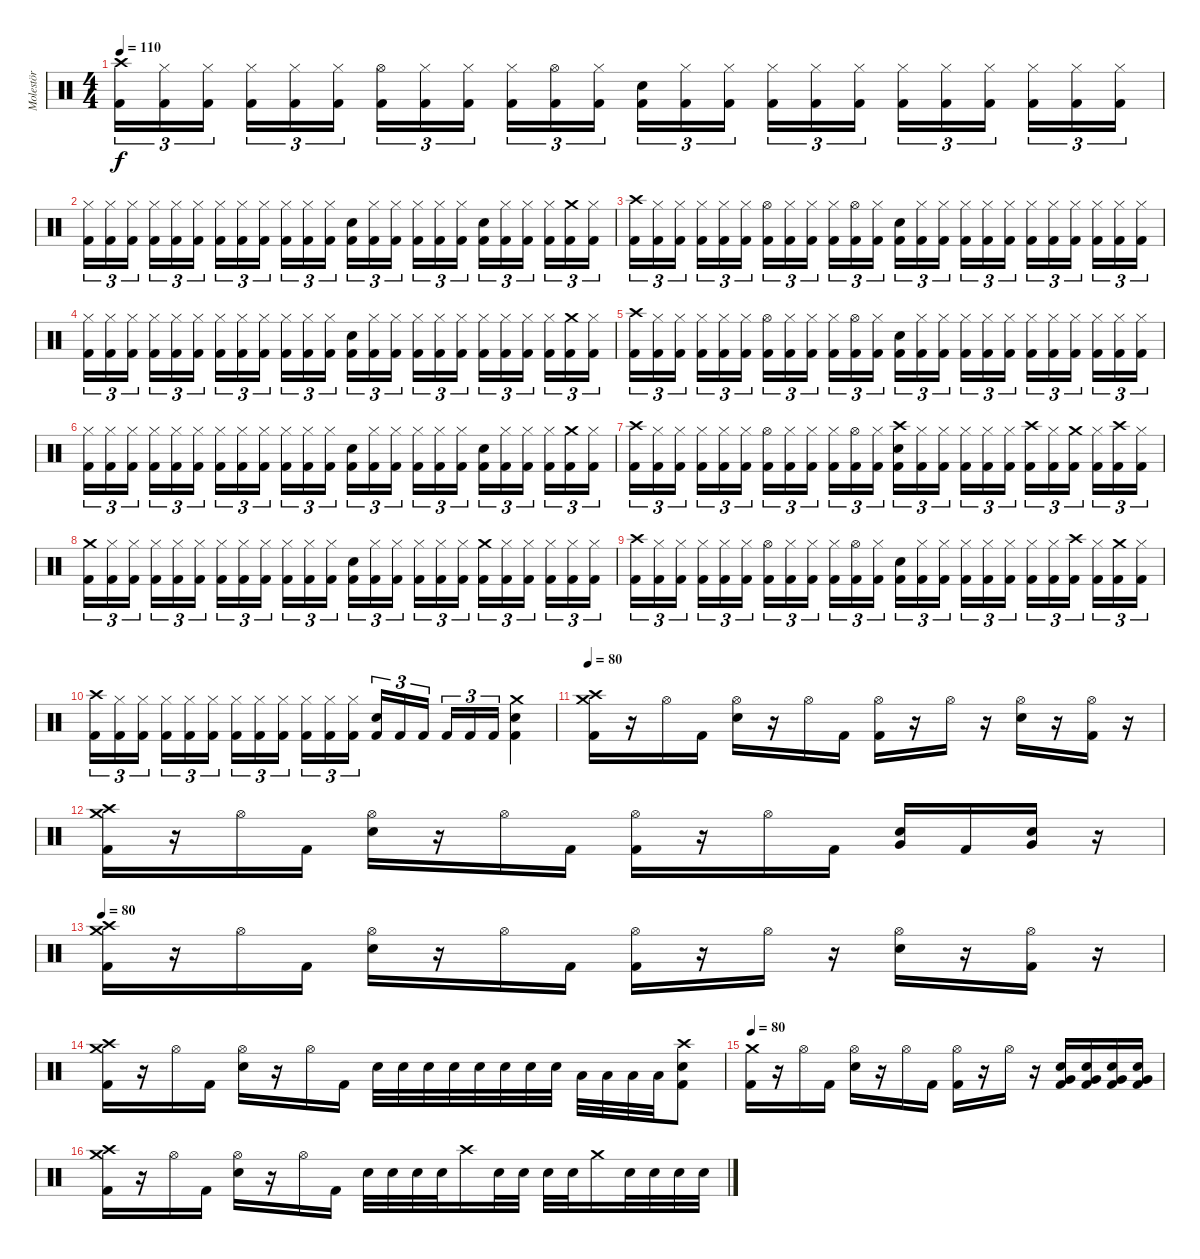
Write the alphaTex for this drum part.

\track ("Molestör" "Molestör") {instrument percussion}
\staff {score}
\articulation defaults
\ts (4 4)
\tempo 110
\clef neutral
\ks c
("Crash high (hit)" "Kick (hit) 2").16{tu (3 2) dy f} ("Hi-Hat (closed)" "Kick (hit) 2").16{tu (3 2)} ("Hi-Hat (closed)" "Kick (hit) 2").16{tu (3 2) beam splitsecondary} ("Hi-Hat (closed)" "Kick (hit) 2").16{tu (3 2)} ("Hi-Hat (closed)" "Kick (hit) 2").16{tu (3 2)} ("Hi-Hat (closed)" "Kick (hit) 2").16{tu (3 2)} ("Hi-Hat (open)" "Kick (hit) 2").16{tu (3 2)} ("Hi-Hat (closed)" "Kick (hit) 2").16{tu (3 2)} ("Hi-Hat (closed)" "Kick (hit) 2").16{tu (3 2) beam splitsecondary} ("Hi-Hat (closed)" "Kick (hit) 2").16{tu (3 2)} ("Hi-Hat (open)" "Kick (hit) 2").16{tu (3 2)} ("Hi-Hat (closed)" "Kick (hit) 2").16{tu (3 2)} ("Electric Snare (hit)" "Kick (hit) 2").16{tu (3 2)} ("Hi-Hat (closed)" "Kick (hit) 2").16{tu (3 2)} ("Hi-Hat (closed)" "Kick (hit) 2").16{tu (3 2) beam splitsecondary} ("Hi-Hat (closed)" "Kick (hit) 2").16{tu (3 2)} ("Hi-Hat (closed)" "Kick (hit) 2").16{tu (3 2)} ("Hi-Hat (closed)" "Kick (hit) 2").16{tu (3 2)} ("Hi-Hat (closed)" "Kick (hit) 2").16{tu (3 2)} ("Hi-Hat (closed)" "Kick (hit) 2").16{tu (3 2)} ("Hi-Hat (closed)" "Kick (hit) 2").16{tu (3 2) beam splitsecondary} ("Hi-Hat (closed)" "Kick (hit) 2").16{tu (3 2)} ("Hi-Hat (closed)" "Kick (hit) 2").16{tu (3 2)} ("Hi-Hat (closed)" "Kick (hit) 2").16{tu (3 2)} |
("Hi-Hat (closed)" "Kick (hit) 2").16{tu (3 2)} ("Hi-Hat (closed)" "Kick (hit) 2").16{tu (3 2)} ("Hi-Hat (closed)" "Kick (hit) 2").16{tu (3 2) beam splitsecondary} ("Hi-Hat (closed)" "Kick (hit) 2").16{tu (3 2)} ("Hi-Hat (closed)" "Kick (hit) 2").16{tu (3 2)} ("Hi-Hat (closed)" "Kick (hit) 2").16{tu (3 2)} ("Hi-Hat (closed)" "Kick (hit) 2").16{tu (3 2)} ("Hi-Hat (closed)" "Kick (hit) 2").16{tu (3 2)} ("Hi-Hat (closed)" "Kick (hit) 2").16{tu (3 2) beam splitsecondary} ("Hi-Hat (closed)" "Kick (hit) 2").16{tu (3 2)} ("Hi-Hat (closed)" "Kick (hit) 2").16{tu (3 2)} ("Hi-Hat (closed)" "Kick (hit) 2").16{tu (3 2)} ("Electric Snare (hit)" "Kick (hit) 2").16{tu (3 2)} ("Hi-Hat (closed)" "Kick (hit) 2").16{tu (3 2)} ("Hi-Hat (closed)" "Kick (hit) 2").16{tu (3 2) beam splitsecondary} ("Hi-Hat (closed)" "Kick (hit) 2").16{tu (3 2)} ("Hi-Hat (closed)" "Kick (hit) 2").16{tu (3 2)} ("Hi-Hat (closed)" "Kick (hit) 2").16{tu (3 2)} ("Electric Snare (hit)" "Kick (hit) 2").16{tu (3 2)} ("Hi-Hat (closed)" "Kick (hit) 2").16{tu (3 2)} ("Hi-Hat (closed)" "Kick (hit) 2").16{tu (3 2) beam splitsecondary} ("Hi-Hat (closed)" "Kick (hit) 2").16{tu (3 2)} ("Crash medium (hit)" "Kick (hit) 2").16{tu (3 2)} ("Hi-Hat (closed)" "Kick (hit) 2").16{tu (3 2)} |
("Crash high (hit)" "Kick (hit) 2").16{tu (3 2)} ("Hi-Hat (closed)" "Kick (hit) 2").16{tu (3 2)} ("Hi-Hat (closed)" "Kick (hit) 2").16{tu (3 2) beam splitsecondary} ("Hi-Hat (closed)" "Kick (hit) 2").16{tu (3 2)} ("Hi-Hat (closed)" "Kick (hit) 2").16{tu (3 2)} ("Hi-Hat (closed)" "Kick (hit) 2").16{tu (3 2)} ("Hi-Hat (open)" "Kick (hit) 2").16{tu (3 2)} ("Hi-Hat (closed)" "Kick (hit) 2").16{tu (3 2)} ("Hi-Hat (closed)" "Kick (hit) 2").16{tu (3 2) beam splitsecondary} ("Hi-Hat (closed)" "Kick (hit) 2").16{tu (3 2)} ("Hi-Hat (open)" "Kick (hit) 2").16{tu (3 2)} ("Hi-Hat (closed)" "Kick (hit) 2").16{tu (3 2)} ("Electric Snare (hit)" "Kick (hit) 2").16{tu (3 2)} ("Hi-Hat (closed)" "Kick (hit) 2").16{tu (3 2)} ("Hi-Hat (closed)" "Kick (hit) 2").16{tu (3 2) beam splitsecondary} ("Hi-Hat (closed)" "Kick (hit) 2").16{tu (3 2)} ("Hi-Hat (closed)" "Kick (hit) 2").16{tu (3 2)} ("Hi-Hat (closed)" "Kick (hit) 2").16{tu (3 2)} ("Hi-Hat (closed)" "Kick (hit) 2").16{tu (3 2)} ("Hi-Hat (closed)" "Kick (hit) 2").16{tu (3 2)} ("Hi-Hat (closed)" "Kick (hit) 2").16{tu (3 2) beam splitsecondary} ("Hi-Hat (closed)" "Kick (hit) 2").16{tu (3 2)} ("Hi-Hat (closed)" "Kick (hit) 2").16{tu (3 2)} ("Hi-Hat (closed)" "Kick (hit) 2").16{tu (3 2)} |
("Hi-Hat (closed)" "Kick (hit) 2").16{tu (3 2)} ("Hi-Hat (closed)" "Kick (hit) 2").16{tu (3 2)} ("Hi-Hat (closed)" "Kick (hit) 2").16{tu (3 2) beam splitsecondary} ("Hi-Hat (closed)" "Kick (hit) 2").16{tu (3 2)} ("Hi-Hat (closed)" "Kick (hit) 2").16{tu (3 2)} ("Hi-Hat (closed)" "Kick (hit) 2").16{tu (3 2)} ("Hi-Hat (closed)" "Kick (hit) 2").16{tu (3 2)} ("Hi-Hat (closed)" "Kick (hit) 2").16{tu (3 2)} ("Hi-Hat (closed)" "Kick (hit) 2").16{tu (3 2) beam splitsecondary} ("Hi-Hat (closed)" "Kick (hit) 2").16{tu (3 2)} ("Hi-Hat (closed)" "Kick (hit) 2").16{tu (3 2)} ("Hi-Hat (closed)" "Kick (hit) 2").16{tu (3 2)} ("Electric Snare (hit)" "Kick (hit) 2").16{tu (3 2)} ("Hi-Hat (closed)" "Kick (hit) 2").16{tu (3 2)} ("Hi-Hat (closed)" "Kick (hit) 2").16{tu (3 2) beam splitsecondary} ("Hi-Hat (closed)" "Kick (hit) 2").16{tu (3 2)} ("Hi-Hat (closed)" "Kick (hit) 2").16{tu (3 2)} ("Hi-Hat (closed)" "Kick (hit) 2").16{tu (3 2)} ("Hi-Hat (closed)" "Kick (hit) 2").16{tu (3 2)} ("Hi-Hat (closed)" "Kick (hit) 2").16{tu (3 2)} ("Hi-Hat (closed)" "Kick (hit) 2").16{tu (3 2) beam splitsecondary} ("Hi-Hat (closed)" "Kick (hit) 2").16{tu (3 2)} ("Crash medium (hit)" "Kick (hit) 2").16{tu (3 2)} ("Hi-Hat (closed)" "Kick (hit) 2").16{tu (3 2)} |
("Crash high (hit)" "Kick (hit) 2").16{tu (3 2)} ("Hi-Hat (closed)" "Kick (hit) 2").16{tu (3 2)} ("Hi-Hat (closed)" "Kick (hit) 2").16{tu (3 2) beam splitsecondary} ("Hi-Hat (closed)" "Kick (hit) 2").16{tu (3 2)} ("Hi-Hat (closed)" "Kick (hit) 2").16{tu (3 2)} ("Hi-Hat (closed)" "Kick (hit) 2").16{tu (3 2)} ("Hi-Hat (open)" "Kick (hit) 2").16{tu (3 2)} ("Hi-Hat (closed)" "Kick (hit) 2").16{tu (3 2)} ("Hi-Hat (closed)" "Kick (hit) 2").16{tu (3 2) beam splitsecondary} ("Hi-Hat (closed)" "Kick (hit) 2").16{tu (3 2)} ("Hi-Hat (open)" "Kick (hit) 2").16{tu (3 2)} ("Hi-Hat (closed)" "Kick (hit) 2").16{tu (3 2)} ("Electric Snare (hit)" "Kick (hit) 2").16{tu (3 2)} ("Hi-Hat (closed)" "Kick (hit) 2").16{tu (3 2)} ("Hi-Hat (closed)" "Kick (hit) 2").16{tu (3 2) beam splitsecondary} ("Hi-Hat (closed)" "Kick (hit) 2").16{tu (3 2)} ("Hi-Hat (closed)" "Kick (hit) 2").16{tu (3 2)} ("Hi-Hat (closed)" "Kick (hit) 2").16{tu (3 2)} ("Hi-Hat (closed)" "Kick (hit) 2").16{tu (3 2)} ("Hi-Hat (closed)" "Kick (hit) 2").16{tu (3 2)} ("Hi-Hat (closed)" "Kick (hit) 2").16{tu (3 2) beam splitsecondary} ("Hi-Hat (closed)" "Kick (hit) 2").16{tu (3 2)} ("Hi-Hat (closed)" "Kick (hit) 2").16{tu (3 2)} ("Hi-Hat (closed)" "Kick (hit) 2").16{tu (3 2)} |
("Hi-Hat (closed)" "Kick (hit) 2").16{tu (3 2)} ("Hi-Hat (closed)" "Kick (hit) 2").16{tu (3 2)} ("Hi-Hat (closed)" "Kick (hit) 2").16{tu (3 2) beam splitsecondary} ("Hi-Hat (closed)" "Kick (hit) 2").16{tu (3 2)} ("Hi-Hat (closed)" "Kick (hit) 2").16{tu (3 2)} ("Hi-Hat (closed)" "Kick (hit) 2").16{tu (3 2)} ("Hi-Hat (closed)" "Kick (hit) 2").16{tu (3 2)} ("Hi-Hat (closed)" "Kick (hit) 2").16{tu (3 2)} ("Hi-Hat (closed)" "Kick (hit) 2").16{tu (3 2) beam splitsecondary} ("Hi-Hat (closed)" "Kick (hit) 2").16{tu (3 2)} ("Hi-Hat (closed)" "Kick (hit) 2").16{tu (3 2)} ("Hi-Hat (closed)" "Kick (hit) 2").16{tu (3 2)} ("Electric Snare (hit)" "Kick (hit) 2").16{tu (3 2)} ("Hi-Hat (closed)" "Kick (hit) 2").16{tu (3 2)} ("Hi-Hat (closed)" "Kick (hit) 2").16{tu (3 2) beam splitsecondary} ("Hi-Hat (closed)" "Kick (hit) 2").16{tu (3 2)} ("Hi-Hat (closed)" "Kick (hit) 2").16{tu (3 2)} ("Hi-Hat (closed)" "Kick (hit) 2").16{tu (3 2)} ("Electric Snare (hit)" "Kick (hit) 2").16{tu (3 2)} ("Hi-Hat (closed)" "Kick (hit) 2").16{tu (3 2)} ("Hi-Hat (closed)" "Kick (hit) 2").16{tu (3 2) beam splitsecondary} ("Hi-Hat (closed)" "Kick (hit) 2").16{tu (3 2)} ("Crash medium (hit)" "Kick (hit) 2").16{tu (3 2)} ("Hi-Hat (closed)" "Kick (hit) 2").16{tu (3 2)} |
("Crash high (hit)" "Kick (hit) 2").16{tu (3 2)} ("Hi-Hat (closed)" "Kick (hit) 2").16{tu (3 2)} ("Hi-Hat (closed)" "Kick (hit) 2").16{tu (3 2) beam splitsecondary} ("Hi-Hat (closed)" "Kick (hit) 2").16{tu (3 2)} ("Hi-Hat (closed)" "Kick (hit) 2").16{tu (3 2)} ("Hi-Hat (closed)" "Kick (hit) 2").16{tu (3 2)} ("Hi-Hat (open)" "Kick (hit) 2").16{tu (3 2)} ("Hi-Hat (closed)" "Kick (hit) 2").16{tu (3 2)} ("Hi-Hat (closed)" "Kick (hit) 2").16{tu (3 2) beam splitsecondary} ("Hi-Hat (closed)" "Kick (hit) 2").16{tu (3 2)} ("Hi-Hat (open)" "Kick (hit) 2").16{tu (3 2)} ("Hi-Hat (closed)" "Kick (hit) 2").16{tu (3 2)} ("Crash high (hit)" "Electric Snare (hit)" "Kick (hit) 2").16{tu (3 2)} ("Hi-Hat (closed)" "Kick (hit) 2").16{tu (3 2)} ("Hi-Hat (closed)" "Kick (hit) 2").16{tu (3 2) beam splitsecondary} ("Hi-Hat (closed)" "Kick (hit) 2").16{tu (3 2)} ("Hi-Hat (closed)" "Kick (hit) 2").16{tu (3 2)} ("Hi-Hat (closed)" "Kick (hit) 2").16{tu (3 2)} ("Crash high (hit)" "Kick (hit) 2").16{tu (3 2)} ("Hi-Hat (closed)" "Kick (hit) 2").16{tu (3 2)} ("Crash medium (hit)" "Kick (hit) 2").16{tu (3 2) beam splitsecondary} ("Hi-Hat (closed)" "Kick (hit) 2").16{tu (3 2)} ("Crash high (hit)" "Kick (hit) 2").16{tu (3 2)} ("Hi-Hat (closed)" "Kick (hit) 2").16{tu (3 2)} |
("Crash medium (hit)" "Kick (hit) 2").16{tu (3 2)} ("Hi-Hat (closed)" "Kick (hit) 2").16{tu (3 2)} ("Hi-Hat (closed)" "Kick (hit) 2").16{tu (3 2) beam splitsecondary} ("Hi-Hat (closed)" "Kick (hit) 2").16{tu (3 2)} ("Hi-Hat (closed)" "Kick (hit) 2").16{tu (3 2)} ("Hi-Hat (closed)" "Kick (hit) 2").16{tu (3 2)} ("Hi-Hat (closed)" "Kick (hit) 2").16{tu (3 2)} ("Hi-Hat (closed)" "Kick (hit) 2").16{tu (3 2)} ("Hi-Hat (closed)" "Kick (hit) 2").16{tu (3 2) beam splitsecondary} ("Hi-Hat (closed)" "Kick (hit) 2").16{tu (3 2)} ("Hi-Hat (closed)" "Kick (hit) 2").16{tu (3 2)} ("Hi-Hat (closed)" "Kick (hit) 2").16{tu (3 2)} ("Electric Snare (hit)" "Kick (hit) 2").16{tu (3 2)} ("Hi-Hat (closed)" "Kick (hit) 2").16{tu (3 2)} ("Hi-Hat (closed)" "Kick (hit) 2").16{tu (3 2) beam splitsecondary} ("Hi-Hat (closed)" "Kick (hit) 2").16{tu (3 2)} ("Hi-Hat (closed)" "Kick (hit) 2").16{tu (3 2)} ("Hi-Hat (closed)" "Kick (hit) 2").16{tu (3 2)} ("Crash medium (hit)" "Kick (hit) 2").16{tu (3 2)} ("Hi-Hat (closed)" "Kick (hit) 2").16{tu (3 2)} ("Hi-Hat (closed)" "Kick (hit) 2").16{tu (3 2) beam splitsecondary} ("Hi-Hat (closed)" "Kick (hit) 2").16{tu (3 2)} ("Hi-Hat (closed)" "Kick (hit) 2").16{tu (3 2)} ("Hi-Hat (closed)" "Kick (hit) 2").16{tu (3 2)} |
("Crash high (hit)" "Kick (hit) 2").16{tu (3 2)} ("Hi-Hat (closed)" "Kick (hit) 2").16{tu (3 2)} ("Hi-Hat (closed)" "Kick (hit) 2").16{tu (3 2) beam splitsecondary} ("Hi-Hat (closed)" "Kick (hit) 2").16{tu (3 2)} ("Hi-Hat (closed)" "Kick (hit) 2").16{tu (3 2)} ("Hi-Hat (closed)" "Kick (hit) 2").16{tu (3 2)} ("Hi-Hat (open)" "Kick (hit) 2").16{tu (3 2)} ("Hi-Hat (closed)" "Kick (hit) 2").16{tu (3 2)} ("Hi-Hat (closed)" "Kick (hit) 2").16{tu (3 2) beam splitsecondary} ("Hi-Hat (closed)" "Kick (hit) 2").16{tu (3 2)} ("Hi-Hat (open)" "Kick (hit) 2").16{tu (3 2)} ("Hi-Hat (closed)" "Kick (hit) 2").16{tu (3 2)} ("Electric Snare (hit)" "Kick (hit) 2").16{tu (3 2)} ("Hi-Hat (closed)" "Kick (hit) 2").16{tu (3 2)} ("Hi-Hat (closed)" "Kick (hit) 2").16{tu (3 2) beam splitsecondary} ("Hi-Hat (closed)" "Kick (hit) 2").16{tu (3 2)} ("Hi-Hat (closed)" "Kick (hit) 2").16{tu (3 2)} ("Hi-Hat (closed)" "Kick (hit) 2").16{tu (3 2)} ("Hi-Hat (closed)" "Kick (hit) 2").16{tu (3 2)} ("Hi-Hat (closed)" "Kick (hit) 2").16{tu (3 2)} ("Crash high (hit)" "Kick (hit) 2").16{tu (3 2) beam splitsecondary} ("Hi-Hat (closed)" "Kick (hit) 2").16{tu (3 2)} ("Crash medium (hit)" "Kick (hit) 2").16{tu (3 2)} ("Hi-Hat (closed)" "Kick (hit) 2").16{tu (3 2)} |
("Crash high (hit)" "Kick (hit) 2").16{tu (3 2)} ("Hi-Hat (closed)" "Kick (hit) 2").16{tu (3 2)} ("Hi-Hat (closed)" "Kick (hit) 2").16{tu (3 2) beam splitsecondary} ("Hi-Hat (closed)" "Kick (hit) 2").16{tu (3 2)} ("Hi-Hat (closed)" "Kick (hit) 2").16{tu (3 2)} ("Hi-Hat (closed)" "Kick (hit) 2").16{tu (3 2)} ("Hi-Hat (closed)" "Kick (hit) 2").16{tu (3 2)} ("Hi-Hat (closed)" "Kick (hit) 2").16{tu (3 2)} ("Hi-Hat (closed)" "Kick (hit) 2").16{tu (3 2) beam splitsecondary} ("Hi-Hat (closed)" "Kick (hit) 2").16{tu (3 2)} ("Hi-Hat (closed)" "Kick (hit) 2").16{tu (3 2)} ("Hi-Hat (closed)" "Kick (hit) 2").16{tu (3 2)} ("Electric Snare (hit)" "Kick (hit) 2").16{tu (3 2)} "Kick (hit) 2".16{tu (3 2)} "Kick (hit) 2".16{tu (3 2) beam splitsecondary} "Kick (hit) 2".16{tu (3 2)} "Kick (hit) 2".16{tu (3 2)} "Kick (hit) 2".16{tu (3 2)} ("Crash medium (hit)" "Electric Snare (hit)" "Kick (hit) 2").4 |
\tempo 80
("Crash high (hit)" "Crash medium (hit)" "Kick (hit) 2").16 r.16 "Hi-Hat (open)".16 "Kick (hit) 2".16 ("Hi-Hat (open)" "Electric Snare (hit)").16 r.16 "Hi-Hat (open)".16 "Kick (hit) 2".16 ("Hi-Hat (open)" "Kick (hit) 2").16 r.16 "Hi-Hat (open)".16 r.16 ("Hi-Hat (open)" "Electric Snare (hit)").16 r.16 ("Hi-Hat (open)" "Kick (hit) 2").16 r.16 |
("Crash high (hit)" "Crash medium (hit)" "Kick (hit) 2").16 r.16 "Hi-Hat (open)".16 "Kick (hit) 2".16 ("Hi-Hat (open)" "Electric Snare (hit)").16 r.16 "Hi-Hat (open)".16 "Kick (hit) 2".16 ("Hi-Hat (open)" "Kick (hit) 2").16 r.16 "Hi-Hat (open)".16 "Kick (hit) 2".16 ("Very Low Tom (hit)" "Electric Snare (hit)").16 "Kick (hit) 2".16 ("Very Low Tom (hit)" "Electric Snare (hit)").16 r.16 |
\tempo 80
("Crash high (hit)" "Crash medium (hit)" "Kick (hit) 2").16 r.16 "Hi-Hat (open)".16 "Kick (hit) 2".16 ("Hi-Hat (open)" "Electric Snare (hit)").16 r.16 "Hi-Hat (open)".16 "Kick (hit) 2".16 ("Hi-Hat (open)" "Kick (hit) 2").16 r.16 "Hi-Hat (open)".16 r.16 ("Hi-Hat (open)" "Electric Snare (hit)").16 r.16 ("Hi-Hat (open)" "Kick (hit) 2").16 r.16 |
("Crash high (hit)" "Crash medium (hit)" "Kick (hit) 2").16 r.16 "Hi-Hat (open)".16 "Kick (hit) 2".16 ("Hi-Hat (open)" "Electric Snare (hit)").16 r.16 "Hi-Hat (open)".16 "Kick (hit) 2".16 "Electric Snare (hit)".32 "Electric Snare (hit)".32 "Electric Snare (hit)".32 "Electric Snare (hit)".32 "Electric Snare (hit)".32 "Electric Snare (hit)".32 "Electric Snare (hit)".32 "Electric Snare (hit)".32 "Low Tom (hit)".32 "Low Tom (hit)".32 "Low Tom (hit)".32 "Low Tom (hit)".32 ("Crash high (hit)" "Electric Snare (hit)" "Kick (hit) 2").8 |
\tempo 80
("Crash medium (hit)" "Kick (hit) 2").16 r.16 "Hi-Hat (open)".16 "Kick (hit) 2".16 ("Hi-Hat (open)" "Electric Snare (hit)").16 r.16 "Hi-Hat (open)".16 "Kick (hit) 2".16 ("Hi-Hat (open)" "Kick (hit) 2").16 r.16 "Hi-Hat (open)".16 r.16 ("Very Low Tom (hit)" "Electric Snare (hit)" "Kick (hit) 2").16 ("Very Low Tom (hit)" "Electric Snare (hit)" "Kick (hit) 2").16 ("Very Low Tom (hit)" "Electric Snare (hit)" "Kick (hit) 2").16 ("Very Low Tom (hit)" "Electric Snare (hit)" "Kick (hit) 2").16 |
("Crash high (hit)" "Crash medium (hit)" "Kick (hit) 2").16 r.16 "Hi-Hat (open)".16 "Kick (hit) 2".16 ("Hi-Hat (open)" "Electric Snare (hit)").16 r.16 "Hi-Hat (open)".16 "Kick (hit) 2".16 "Electric Snare (hit)".32 "Electric Snare (hit)".32 "Electric Snare (hit)".32 "Electric Snare (hit)".32 "Crash high (hit)".16 "Electric Snare (hit)".32 "Electric Snare (hit)".32 "Electric Snare (hit)".32 "Electric Snare (hit)".32 "Crash medium (hit)".16 "Electric Snare (hit)".32 "Electric Snare (hit)".32 "Electric Snare (hit)".32 "Electric Snare (hit)".32
